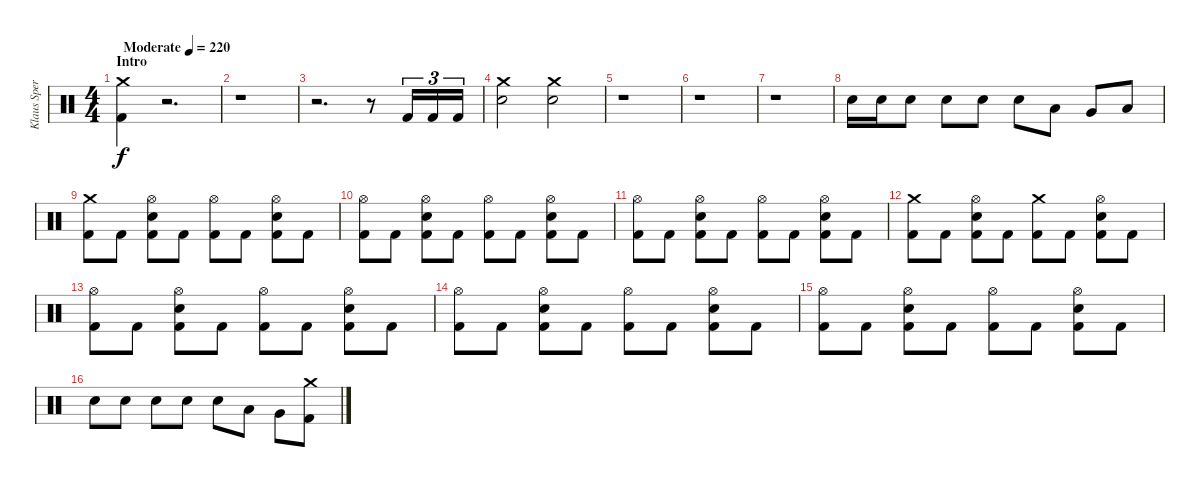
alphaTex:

\track ("Klaus Sperling" "Klaus Sper") {instrument percussion}
\staff {score}
\articulation defaults
\ts (4 4)
\section ("" "Intro")
\tempo (220 "Moderate")
\clef neutral
\ks c
("Crash medium (hit)" "Kick (hit) 2").4{dy f} r.2{d} |
r.1 |
r.2{d} r.8 "Kick (hit) 2".16{tu (3 2)} "Kick (hit) 2".16{tu (3 2)} "Kick (hit) 2".16{tu (3 2)} |
("Crash medium (hit)" "Electric Snare (hit)").2 ("Crash medium (hit)" "Electric Snare (hit)").2 |
r.1 |
r.1 |
r.1 |
"Electric Snare (hit)".16 "Electric Snare (hit)".16 "Electric Snare (hit)".8 "Electric Snare (hit)".8 "Electric Snare (hit)".8 "Electric Snare (hit)".8 "Low Tom (hit)".8 "Very Low Tom (hit)".8 "Low Floor Tom (hit)".8 |
("Crash medium (hit)" "Kick (hit) 2").8 "Kick (hit) 2".8 ("Hi-Hat (open)" "Electric Snare (hit)" "Kick (hit) 2").8 "Kick (hit) 2".8 ("Hi-Hat (open)" "Kick (hit) 2").8 "Kick (hit) 2".8 ("Hi-Hat (open)" "Electric Snare (hit)" "Kick (hit) 2").8 "Kick (hit) 2".8 |
("Hi-Hat (open)" "Kick (hit) 2").8 "Kick (hit) 2".8 ("Hi-Hat (open)" "Electric Snare (hit)" "Kick (hit) 2").8 "Kick (hit) 2".8 ("Hi-Hat (open)" "Kick (hit) 2").8 "Kick (hit) 2".8 ("Hi-Hat (open)" "Electric Snare (hit)" "Kick (hit) 2").8 "Kick (hit) 2".8 |
("Hi-Hat (open)" "Kick (hit) 2").8 "Kick (hit) 2".8 ("Hi-Hat (open)" "Electric Snare (hit)" "Kick (hit) 2").8 "Kick (hit) 2".8 ("Hi-Hat (open)" "Kick (hit) 2").8 "Kick (hit) 2".8 ("Hi-Hat (open)" "Electric Snare (hit)" "Kick (hit) 2").8 "Kick (hit) 2".8 |
("Crash medium (hit)" "Kick (hit) 2").8 "Kick (hit) 2".8 ("Hi-Hat (open)" "Electric Snare (hit)" "Kick (hit) 2").8 "Kick (hit) 2".8 ("Crash medium (hit)" "Kick (hit) 2").8 "Kick (hit) 2".8 ("Hi-Hat (open)" "Electric Snare (hit)" "Kick (hit) 2").8 "Kick (hit) 2".8 |
("Hi-Hat (open)" "Kick (hit) 2").8 "Kick (hit) 2".8 ("Hi-Hat (open)" "Electric Snare (hit)" "Kick (hit) 2").8 "Kick (hit) 2".8 ("Hi-Hat (open)" "Kick (hit) 2").8 "Kick (hit) 2".8 ("Hi-Hat (open)" "Electric Snare (hit)" "Kick (hit) 2").8 "Kick (hit) 2".8 |
("Hi-Hat (open)" "Kick (hit) 2").8 "Kick (hit) 2".8 ("Hi-Hat (open)" "Electric Snare (hit)" "Kick (hit) 2").8 "Kick (hit) 2".8 ("Hi-Hat (open)" "Kick (hit) 2").8 "Kick (hit) 2".8 ("Hi-Hat (open)" "Electric Snare (hit)" "Kick (hit) 2").8 "Kick (hit) 2".8 |
("Hi-Hat (open)" "Kick (hit) 2").8 "Kick (hit) 2".8 ("Hi-Hat (open)" "Electric Snare (hit)" "Kick (hit) 2").8 "Kick (hit) 2".8 ("Hi-Hat (open)" "Kick (hit) 2").8 "Kick (hit) 2".8 ("Hi-Hat (open)" "Electric Snare (hit)" "Kick (hit) 2").8 "Kick (hit) 2".8 |
"Electric Snare (hit)".8 "Electric Snare (hit)".8 "Electric Snare (hit)".8 "Electric Snare (hit)".8 "Electric Snare (hit)".8 "Low Tom (hit)".8 "Very Low Tom (hit)".8 ("Crash medium (hit)" "Kick (hit) 2").8
